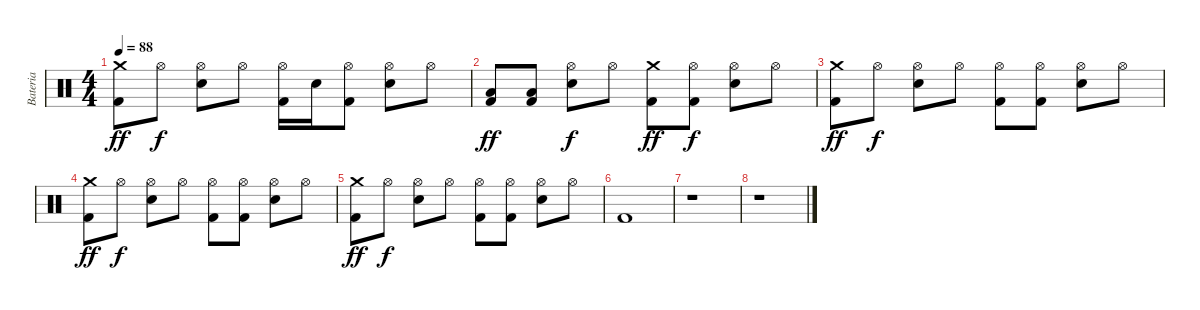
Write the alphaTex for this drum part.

\track ("Bateria" "Bateria") {instrument percussion}
\staff {score}
\articulation defaults
\ts (4 4)
\tempo 88
\clef neutral
\ks c
("Crash medium (hit)" "Kick (hit) 2").8{dy ff} "Hi-Hat (open)".8{dy f} ("Hi-Hat (open)" "Electric Snare (hit)").8 "Hi-Hat (open)".8 ("Hi-Hat (open)" "Kick (hit) 2").16 "Electric Snare (hit)".16 ("Hi-Hat (open)" "Kick (hit) 2").8 ("Hi-Hat (open)" "Electric Snare (hit)").8 "Hi-Hat (open)".8 |
("Low Tom (hit)" "Kick (hit) 2").8{dy ff} ("Low Tom (hit)" "Kick (hit) 2").8 ("Hi-Hat (open)" "Electric Snare (hit)").8{dy f} "Hi-Hat (open)".8 ("Crash medium (hit)" "Kick (hit) 2").8{dy ff} ("Hi-Hat (open)" "Kick (hit) 2").8{dy f} ("Hi-Hat (open)" "Electric Snare (hit)").8 "Hi-Hat (open)".8 |
("Crash medium (hit)" "Kick (hit) 2").8{dy ff} "Hi-Hat (open)".8{dy f} ("Hi-Hat (open)" "Electric Snare (hit)").8 "Hi-Hat (open)".8 ("Hi-Hat (open)" "Kick (hit) 2").8 ("Hi-Hat (open)" "Kick (hit) 2").8 ("Hi-Hat (open)" "Electric Snare (hit)").8 "Hi-Hat (open)".8 |
("Crash medium (hit)" "Kick (hit) 2").8{dy ff} "Hi-Hat (open)".8{dy f} ("Hi-Hat (open)" "Electric Snare (hit)").8 "Hi-Hat (open)".8 ("Hi-Hat (open)" "Kick (hit) 2").8 ("Hi-Hat (open)" "Kick (hit) 2").8 ("Hi-Hat (open)" "Electric Snare (hit)").8 "Hi-Hat (open)".8 |
("Crash medium (hit)" "Kick (hit) 2").8{dy ff} "Hi-Hat (open)".8{dy f} ("Hi-Hat (open)" "Electric Snare (hit)").8 "Hi-Hat (open)".8 ("Hi-Hat (open)" "Kick (hit) 2").8 ("Hi-Hat (open)" "Kick (hit) 2").8 ("Hi-Hat (open)" "Electric Snare (hit)").8 "Hi-Hat (open)".8 |
"Kick (hit) 2".1 |
r.1 |
r.1
